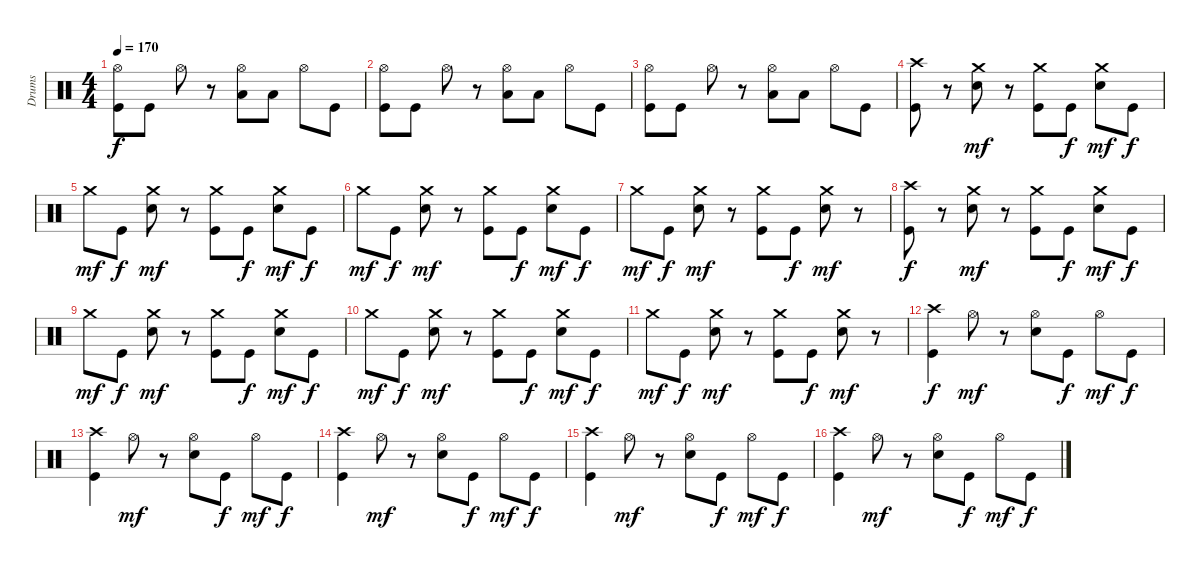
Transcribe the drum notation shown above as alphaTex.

\track ("Drums" "Drums") {instrument percussion}
\staff {score}
\articulation defaults
\ts (4 4)
\tempo 170
\clef neutral
\ks c
("Hi-Hat (open)" "Kick (hit)").8{dy f} "Kick (hit)".8 "Hi-Hat (open)".8 r.8 ("Hi-Hat (open)" "Low Floor Tom (hit)").8 "Low Floor Tom (hit)".8 "Hi-Hat (open)".8 "Kick (hit)".8 |
("Hi-Hat (open)" "Kick (hit)").8 "Kick (hit)".8 "Hi-Hat (open)".8 r.8 ("Hi-Hat (open)" "Low Floor Tom (hit)").8 "Low Floor Tom (hit)".8 "Hi-Hat (open)".8 "Kick (hit)".8 |
("Hi-Hat (open)" "Kick (hit)").8 "Kick (hit)".8 "Hi-Hat (open)".8 r.8 ("Hi-Hat (open)" "Low Floor Tom (hit)").8 "Low Floor Tom (hit)".8 "Hi-Hat (open)".8 "Kick (hit)".8 |
("Kick (hit)" "Crash high (hit)").8 r.8 ("Electric Snare (hit)" "Crash medium (hit)").8{dy mf} r.8 ("Kick (hit)" "Crash medium (hit)").8 "Kick (hit)".8{dy f} ("Electric Snare (hit)" "Crash medium (hit)").8{dy mf} "Kick (hit)".8{dy f} |
"Crash medium (hit)".8{dy mf} "Kick (hit)".8{dy f} ("Electric Snare (hit)" "Crash medium (hit)").8{dy mf} r.8 ("Kick (hit)" "Crash medium (hit)").8 "Kick (hit)".8{dy f} ("Electric Snare (hit)" "Crash medium (hit)").8{dy mf} "Kick (hit)".8{dy f} |
"Crash medium (hit)".8{dy mf} "Kick (hit)".8{dy f} ("Electric Snare (hit)" "Crash medium (hit)").8{dy mf} r.8 ("Kick (hit)" "Crash medium (hit)").8 "Kick (hit)".8{dy f} ("Electric Snare (hit)" "Crash medium (hit)").8{dy mf} "Kick (hit)".8{dy f} |
"Crash medium (hit)".8{dy mf} "Kick (hit)".8{dy f} ("Electric Snare (hit)" "Crash medium (hit)").8{dy mf} r.8 ("Kick (hit)" "Crash medium (hit)").8 "Kick (hit)".8{dy f} ("Electric Snare (hit)" "Crash medium (hit)").8{dy mf} r.8 |
("Kick (hit)" "Crash high (hit)").8{dy f} r.8 ("Electric Snare (hit)" "Crash medium (hit)").8{dy mf} r.8 ("Kick (hit)" "Crash medium (hit)").8 "Kick (hit)".8{dy f} ("Electric Snare (hit)" "Crash medium (hit)").8{dy mf} "Kick (hit)".8{dy f} |
"Crash medium (hit)".8{dy mf} "Kick (hit)".8{dy f} ("Electric Snare (hit)" "Crash medium (hit)").8{dy mf} r.8 ("Kick (hit)" "Crash medium (hit)").8 "Kick (hit)".8{dy f} ("Electric Snare (hit)" "Crash medium (hit)").8{dy mf} "Kick (hit)".8{dy f} |
"Crash medium (hit)".8{dy mf} "Kick (hit)".8{dy f} ("Electric Snare (hit)" "Crash medium (hit)").8{dy mf} r.8 ("Kick (hit)" "Crash medium (hit)").8 "Kick (hit)".8{dy f} ("Electric Snare (hit)" "Crash medium (hit)").8{dy mf} "Kick (hit)".8{dy f} |
"Crash medium (hit)".8{dy mf} "Kick (hit)".8{dy f} ("Electric Snare (hit)" "Crash medium (hit)").8{dy mf} r.8 ("Kick (hit)" "Crash medium (hit)").8 "Kick (hit)".8{dy f} ("Electric Snare (hit)" "Crash medium (hit)").8{dy mf} r.8 |
("Kick (hit)" "Crash high (hit)").4{dy f} "Hi-Hat (open)".8{dy mf} r.8 ("Electric Snare (hit)" "Hi-Hat (open)").8 "Kick (hit)".8{dy f} "Hi-Hat (open)".8{dy mf} "Kick (hit)".8{dy f} |
("Kick (hit)" "Crash high (hit)").4 "Hi-Hat (open)".8{dy mf} r.8 ("Electric Snare (hit)" "Hi-Hat (open)").8 "Kick (hit)".8{dy f} "Hi-Hat (open)".8{dy mf} "Kick (hit)".8{dy f} |
("Kick (hit)" "Crash high (hit)").4 "Hi-Hat (open)".8{dy mf} r.8 ("Electric Snare (hit)" "Hi-Hat (open)").8 "Kick (hit)".8{dy f} "Hi-Hat (open)".8{dy mf} "Kick (hit)".8{dy f} |
("Kick (hit)" "Crash high (hit)").4 "Hi-Hat (open)".8{dy mf} r.8 ("Electric Snare (hit)" "Hi-Hat (open)").8 "Kick (hit)".8{dy f} "Hi-Hat (open)".8{dy mf} "Kick (hit)".8{dy f} |
("Kick (hit)" "Crash high (hit)").4 "Hi-Hat (open)".8{dy mf} r.8 ("Electric Snare (hit)" "Hi-Hat (open)").8 "Kick (hit)".8{dy f} "Hi-Hat (open)".8{dy mf} "Kick (hit)".8{dy f}
